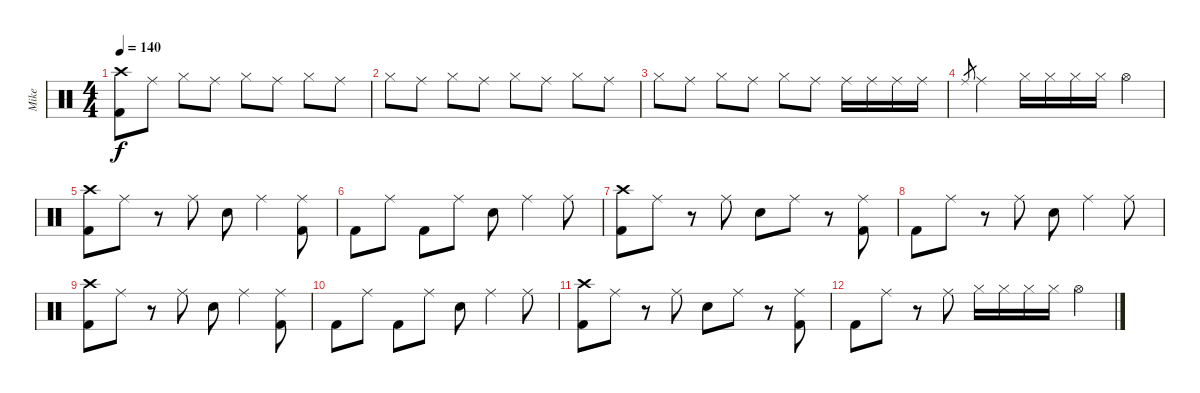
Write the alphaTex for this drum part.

\track ("Mike" "Mike") {instrument percussion}
\staff {score}
\articulation defaults
\ts (4 4)
\tempo 140
\clef neutral
\ks c
("Kick (hit) 2" "Crash high (hit)").8{dy f} "Ride (middle)".8 "Hi-Hat (closed)".8 "Ride (middle)".8 "Hi-Hat (closed)".8 "Ride (middle)".8 "Hi-Hat (closed)".8 "Ride (middle)".8 |
"Hi-Hat (closed)".8 "Ride (middle)".8 "Hi-Hat (closed)".8 "Ride (middle)".8 "Hi-Hat (closed)".8 "Ride (middle)".8 "Hi-Hat (closed)".8 "Ride (middle)".8 |
"Hi-Hat (closed)".8 "Ride (middle)".8 "Hi-Hat (closed)".8 "Ride (middle)".8 "Hi-Hat (closed)".8 "Ride (middle)".8 "Ride (middle)".16 "Ride (middle)".16 "Ride (middle)".16 "Ride (middle)".16 |
"Ride (middle)".8{gr} "Ride (middle)".2 "Hi-Hat (closed)".16 "Hi-Hat (closed)".16 "Hi-Hat (closed)".16 "Hi-Hat (closed)".16 "Hi-Hat (open)".4 |
("Kick (hit) 2" "Crash high (hit)").8 "Ride (middle)".8 r.8 "Ride (middle)".8 "Electric Snare (hit)".8 "Ride (middle)".4 ("Kick (hit) 2" "Ride (middle)").8 |
"Kick (hit) 2".8 "Ride (middle)".8 "Kick (hit) 2".8 "Ride (middle)".8 "Electric Snare (hit)".8 "Ride (middle)".4 "Ride (middle)".8 |
("Kick (hit) 2" "Crash high (hit)").8 "Ride (middle)".8 r.8 "Ride (middle)".8 "Electric Snare (hit)".8 "Ride (middle)".8 r.8 ("Kick (hit) 2" "Ride (middle)").8 |
"Kick (hit) 2".8 "Ride (middle)".8 r.8 "Ride (middle)".8 "Electric Snare (hit)".8 "Ride (middle)".4 "Ride (middle)".8 |
("Kick (hit) 2" "Crash high (hit)").8 "Ride (middle)".8 r.8 "Ride (middle)".8 "Electric Snare (hit)".8 "Ride (middle)".4 ("Kick (hit) 2" "Ride (middle)").8 |
"Kick (hit) 2".8 "Ride (middle)".8 "Kick (hit) 2".8 "Ride (middle)".8 "Electric Snare (hit)".8 "Ride (middle)".4 "Ride (middle)".8 |
("Kick (hit) 2" "Crash high (hit)").8 "Ride (middle)".8 r.8 "Ride (middle)".8 "Electric Snare (hit)".8 "Ride (middle)".8 r.8 ("Kick (hit) 2" "Ride (middle)").8 |
"Kick (hit) 2".8 "Ride (middle)".8 r.8 "Ride (middle)".8 "Hi-Hat (closed)".16 "Hi-Hat (closed)".16 "Hi-Hat (closed)".16 "Hi-Hat (closed)".16 "Hi-Hat (open)".4
